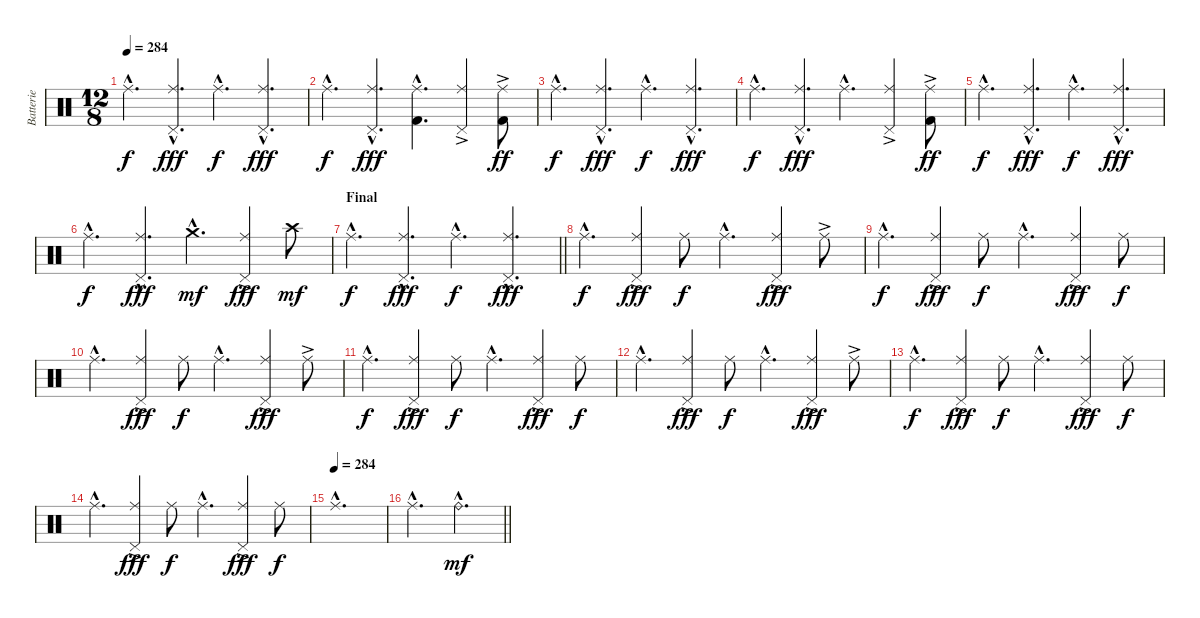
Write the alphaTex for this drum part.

\track ("Batterie" "Batterie") {instrument percussion}
\staff {score}
\articulation defaults
\ts (12 8)
\tempo 284
\clef neutral
\ks c "Ride (middle)"{hac}.4{d dy f}
("Ride (middle)"{hac} "Pedal Hi-Hat (hit)"{hac}).4{d dy fff} "Ride (middle)"{hac}.4{d dy f} ("Ride (middle)"{hac} "Pedal Hi-Hat (hit)"{hac}).4{d dy fff} |
"Ride (middle)"{hac}.4{d dy f} ("Ride (middle)"{hac} "Pedal Hi-Hat (hit)"{hac}).4{d dy fff} ("Ride (middle)"{hac} "Kick (hit) 2"{hac}).4{d} ("Ride (middle)" "Pedal Hi-Hat (hit)"{ac}).4 ("Ride (middle)"{ac} "Kick (hit) 2"{ac}).8{dy ff} |
"Ride (middle)"{hac}.4{d dy f} ("Ride (middle)"{hac} "Pedal Hi-Hat (hit)"{hac}).4{d dy fff} "Ride (middle)"{hac}.4{d dy f} ("Ride (middle)"{hac} "Pedal Hi-Hat (hit)"{hac}).4{d dy fff} |
"Ride (middle)"{hac}.4{d dy f} ("Ride (middle)"{hac} "Pedal Hi-Hat (hit)"{hac}).4{d dy fff} "Ride (middle)"{hac}.4{d} ("Ride (middle)" "Pedal Hi-Hat (hit)"{ac}).4 ("Ride (middle)"{ac} "Kick (hit) 2"{ac}).8{dy ff} |
"Ride (middle)"{hac}.4{d dy f} ("Ride (middle)"{hac} "Pedal Hi-Hat (hit)"{hac}).4{d dy fff} "Ride (middle)"{hac}.4{d dy f} ("Ride (middle)"{hac} "Pedal Hi-Hat (hit)"{hac}).4{d dy fff} |
"Ride (middle)"{hac}.4{d dy f} ("Ride (middle)"{hac} "Pedal Hi-Hat (hit)"{hac}).4{d dy fff} "Crash medium (hit)"{hac}.4{d dy mf} ("Ride (middle)" "Pedal Hi-Hat (hit)"{ac}).4{dy fff} "Crash high (hit)".8{dy mf} |
\section ("" "Final")
\barLineRight lightlight "Ride (middle)"{hac}.4{d dy f}
("Ride (middle)"{hac} "Pedal Hi-Hat (hit)"{hac}).4{d dy fff} "Ride (middle)"{hac}.4{d dy f} ("Ride (middle)"{hac} "Pedal Hi-Hat (hit)"{hac}).4{d dy fff} |
"Ride (middle)"{hac}.4{d dy f} ("Ride (middle)" "Pedal Hi-Hat (hit)"{ac}).4{dy fff} "Ride (middle)".8{dy f} "Ride (middle)"{hac}.4{d} ("Ride (middle)" "Pedal Hi-Hat (hit)"{ac}).4{dy fff} "Ride (middle)"{ac}.8 |
"Ride (middle)"{hac}.4{d dy f} ("Ride (middle)" "Pedal Hi-Hat (hit)"{ac}).4{dy fff} "Ride (middle)".8{dy f} "Ride (middle)"{hac}.4{d} ("Ride (middle)" "Pedal Hi-Hat (hit)"{ac}).4{dy fff} "Ride (middle)".8{dy f} |
"Ride (middle)"{hac}.4{d} ("Ride (middle)" "Pedal Hi-Hat (hit)"{ac}).4{dy fff} "Ride (middle)".8{dy f} "Ride (middle)"{hac}.4{d} ("Ride (middle)" "Pedal Hi-Hat (hit)"{ac}).4{dy fff} "Ride (middle)"{ac}.8 |
"Ride (middle)"{hac}.4{d dy f} ("Ride (middle)" "Pedal Hi-Hat (hit)"{ac}).4{dy fff} "Ride (middle)".8{dy f} "Ride (middle)"{hac}.4{d} ("Ride (middle)" "Pedal Hi-Hat (hit)"{ac}).4{dy fff} "Ride (middle)".8{dy f} |
"Ride (middle)"{hac}.4{d} ("Ride (middle)" "Pedal Hi-Hat (hit)"{ac}).4{dy fff} "Ride (middle)".8{dy f} "Ride (middle)"{hac}.4{d} ("Ride (middle)" "Pedal Hi-Hat (hit)"{ac}).4{dy fff} "Ride (middle)"{ac}.8 |
"Ride (middle)"{hac}.4{d dy f} ("Ride (middle)" "Pedal Hi-Hat (hit)"{ac}).4{dy fff} "Ride (middle)".8{dy f} "Ride (middle)"{hac}.4{d} ("Ride (middle)" "Pedal Hi-Hat (hit)"{ac}).4{dy fff} "Ride (middle)".8{dy f} |
"Ride (middle)"{hac}.4{d} ("Ride (middle)" "Pedal Hi-Hat (hit)"{ac}).4{dy fff} "Ride (middle)".8{dy f} "Ride (middle)"{hac}.4{d} ("Ride (middle)" "Pedal Hi-Hat (hit)"{ac}).4{dy fff} "Ride (middle)".8{dy f} |
\tempo (284)
"Ride (middle)"{tr (59 16) hac}.1{d volume 7 balance 8} |
\barLineRight lightlight "Ride (middle)"{tr (59 16) hac}.2{d} "Ride (bell)"{hac}.2{d dy mf}
